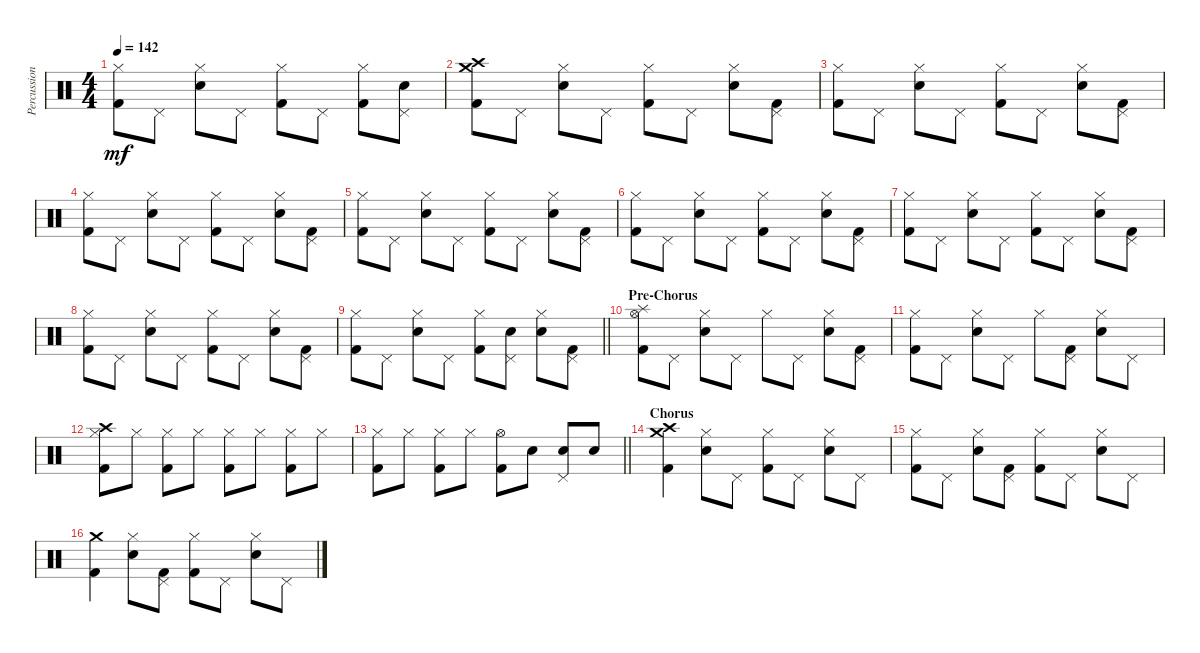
\track ("Percussion" "Percussion") {instrument percussion}
\staff {score}
\articulation defaults
\ts (4 4)
\tempo 142
\clef neutral
\ks c
("Hi-Hat (closed)" "Kick (hit) 2").8{dy mf} "Pedal Hi-Hat (hit)".8 ("Snare (hit) 2" "Hi-Hat (closed)").8 "Pedal Hi-Hat (hit)".8 ("Hi-Hat (closed)" "Kick (hit) 2").8 "Pedal Hi-Hat (hit)".8 ("Hi-Hat (closed)" "Kick (hit) 2").8 ("Snare (hit) 2" "Pedal Hi-Hat (hit)").8 |
("Crash medium (hit)" "Crash high (hit)" "Kick (hit) 2").8 "Pedal Hi-Hat (hit)".8 ("Snare (hit) 2" "Hi-Hat (closed)").8 "Pedal Hi-Hat (hit)".8 ("Hi-Hat (closed)" "Kick (hit) 2").8 "Pedal Hi-Hat (hit)".8 ("Snare (hit) 2" "Hi-Hat (closed)").8 ("Pedal Hi-Hat (hit)" "Kick (hit) 2").8 |
("Hi-Hat (closed)" "Kick (hit) 2").8 "Pedal Hi-Hat (hit)".8 ("Snare (hit) 2" "Hi-Hat (closed)").8 "Pedal Hi-Hat (hit)".8 ("Hi-Hat (closed)" "Kick (hit) 2").8 "Pedal Hi-Hat (hit)".8 ("Snare (hit) 2" "Hi-Hat (closed)").8 ("Pedal Hi-Hat (hit)" "Kick (hit) 2").8 |
("Hi-Hat (closed)" "Kick (hit) 2").8 "Pedal Hi-Hat (hit)".8 ("Snare (hit) 2" "Hi-Hat (closed)").8 "Pedal Hi-Hat (hit)".8 ("Hi-Hat (closed)" "Kick (hit) 2").8 "Pedal Hi-Hat (hit)".8 ("Snare (hit) 2" "Hi-Hat (closed)").8 ("Pedal Hi-Hat (hit)" "Kick (hit) 2").8 |
("Hi-Hat (closed)" "Kick (hit) 2").8 "Pedal Hi-Hat (hit)".8 ("Snare (hit) 2" "Hi-Hat (closed)").8 "Pedal Hi-Hat (hit)".8 ("Hi-Hat (closed)" "Kick (hit) 2").8 "Pedal Hi-Hat (hit)".8 ("Snare (hit) 2" "Hi-Hat (closed)").8 ("Pedal Hi-Hat (hit)" "Kick (hit) 2").8 |
("Hi-Hat (closed)" "Kick (hit) 2").8 "Pedal Hi-Hat (hit)".8 ("Snare (hit) 2" "Hi-Hat (closed)").8 "Pedal Hi-Hat (hit)".8 ("Hi-Hat (closed)" "Kick (hit) 2").8 "Pedal Hi-Hat (hit)".8 ("Snare (hit) 2" "Hi-Hat (closed)").8 ("Pedal Hi-Hat (hit)" "Kick (hit) 2").8 |
("Hi-Hat (closed)" "Kick (hit) 2").8 "Pedal Hi-Hat (hit)".8 ("Snare (hit) 2" "Hi-Hat (closed)").8 "Pedal Hi-Hat (hit)".8 ("Hi-Hat (closed)" "Kick (hit) 2").8 "Pedal Hi-Hat (hit)".8 ("Snare (hit) 2" "Hi-Hat (closed)").8 ("Pedal Hi-Hat (hit)" "Kick (hit) 2").8 |
("Hi-Hat (closed)" "Kick (hit) 2").8 "Pedal Hi-Hat (hit)".8 ("Snare (hit) 2" "Hi-Hat (closed)").8 "Pedal Hi-Hat (hit)".8 ("Hi-Hat (closed)" "Kick (hit) 2").8 "Pedal Hi-Hat (hit)".8 ("Snare (hit) 2" "Hi-Hat (closed)").8 ("Pedal Hi-Hat (hit)" "Kick (hit) 2").8 |
\barLineRight lightlight
("Hi-Hat (closed)" "Kick (hit) 2").8 "Pedal Hi-Hat (hit)".8 ("Snare (hit) 2" "Hi-Hat (closed)").8 "Pedal Hi-Hat (hit)".8 ("Hi-Hat (closed)" "Kick (hit) 2").8 ("Snare (hit) 2" "Pedal Hi-Hat (hit)").8 ("Snare (hit) 2" "Hi-Hat (closed)").8 ("Pedal Hi-Hat (hit)" "Kick (hit) 2").8 |
\section ("" "Pre-Chorus")
("Splash (hit)" "Hi-Hat (open)" "Kick (hit) 2").8 "Pedal Hi-Hat (hit)".8 ("Snare (hit) 2" "Hi-Hat (closed)").8 "Pedal Hi-Hat (hit)".8 "Hi-Hat (closed)".8 "Pedal Hi-Hat (hit)".8 ("Snare (hit) 2" "Hi-Hat (closed)").8 ("Pedal Hi-Hat (hit)" "Kick (hit) 2").8 |
("Hi-Hat (closed)" "Kick (hit) 2").8 "Pedal Hi-Hat (hit)".8 ("Snare (hit) 2" "Hi-Hat (closed)").8 "Pedal Hi-Hat (hit)".8 "Hi-Hat (closed)".8 ("Pedal Hi-Hat (hit)" "Kick (hit) 2").8 ("Snare (hit) 2" "Hi-Hat (closed)").8 "Pedal Hi-Hat (hit)".8 |
("Crash high (hit)" "Hi-Hat (closed)" "Kick (hit) 2").8 "Hi-Hat (closed)".8 ("Hi-Hat (closed)" "Kick (hit) 2").8 "Hi-Hat (closed)".8 ("Hi-Hat (closed)" "Kick (hit) 2").8 "Hi-Hat (closed)".8 ("Hi-Hat (closed)" "Kick (hit) 2").8 "Hi-Hat (closed)".8 |
\barLineRight lightlight
("Hi-Hat (closed)" "Kick (hit) 2").8 "Hi-Hat (closed)".8 ("Hi-Hat (closed)" "Kick (hit) 2").8 "Hi-Hat (closed)".8 ("Hi-Hat (open)" "Kick (hit) 2").8 "Snare (hit) 2".8 ("Snare (hit) 2" "Pedal Hi-Hat (hit)").8 "Snare (hit) 2".8 |
\section ("" "Chorus")
("Crash high (hit)" "Crash medium (hit)" "Kick (hit) 2").4 ("Snare (hit) 2" "Hi-Hat (closed)").8 "Pedal Hi-Hat (hit)".8 ("Hi-Hat (closed)" "Kick (hit) 2").8 "Pedal Hi-Hat (hit)".8 ("Snare (hit) 2" "Hi-Hat (closed)").8 "Pedal Hi-Hat (hit)".8 |
("Hi-Hat (closed)" "Kick (hit) 2").8 "Pedal Hi-Hat (hit)".8 ("Snare (hit) 2" "Hi-Hat (closed)").8 ("Pedal Hi-Hat (hit)" "Kick (hit) 2").8 ("Hi-Hat (closed)" "Kick (hit) 2").8 "Pedal Hi-Hat (hit)".8 ("Snare (hit) 2" "Hi-Hat (closed)").8 "Pedal Hi-Hat (hit)".8 |
("Crash medium (hit)" "Kick (hit) 2").4 ("Snare (hit) 2" "Hi-Hat (closed)").8 ("Pedal Hi-Hat (hit)" "Kick (hit) 2").8 ("Hi-Hat (closed)" "Kick (hit) 2").8 "Pedal Hi-Hat (hit)".8 ("Snare (hit) 2" "Hi-Hat (closed)").8 "Pedal Hi-Hat (hit)".8
